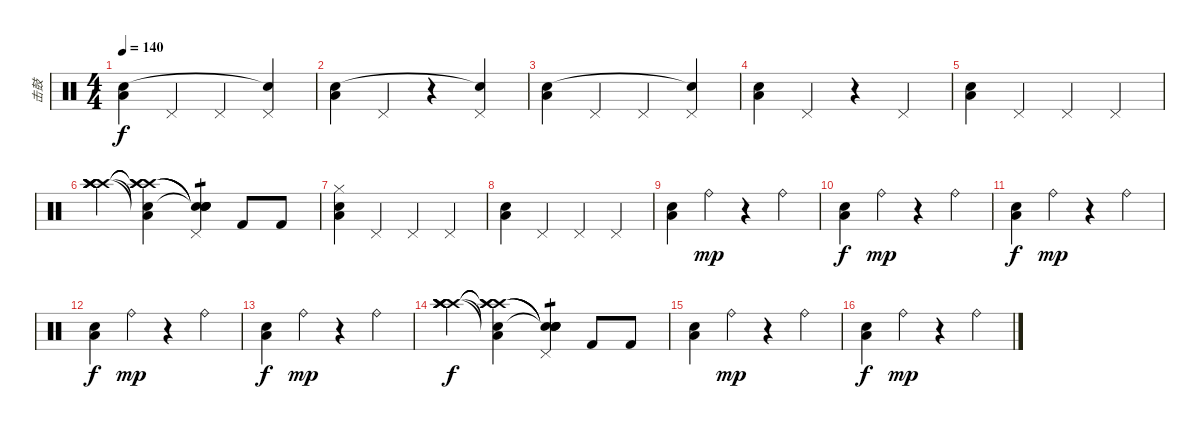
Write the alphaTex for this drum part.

\track ("击鼓" "击鼓") {instrument percussion}
\staff {score}
\articulation defaults
\ts (4 4)
\tempo 140
\clef neutral
\ks c
("Low Floor Tom (hit)" "Snare (hit) 2").4{dy f} "Pedal Hi-Hat (hit)".4 "Pedal Hi-Hat (hit)".4 ("Pedal Hi-Hat (hit)" "Snare (hit)"{t}).4 |
("Low Floor Tom (hit)" "Snare (hit) 2").4 "Pedal Hi-Hat (hit)".4 r.4 ("Pedal Hi-Hat (hit)" "Snare (hit)"{t}).4 |
("Low Floor Tom (hit)" "Snare (hit) 2").4 "Pedal Hi-Hat (hit)".4 "Pedal Hi-Hat (hit)".4 ("Pedal Hi-Hat (hit)" "Snare (hit)"{t}).4 |
("Low Floor Tom (hit)" "Snare (hit) 2").4 "Pedal Hi-Hat (hit)".4 r.4 "Pedal Hi-Hat (hit)".4 |
("Low Floor Tom (hit)" "Snare (hit) 2").4 "Pedal Hi-Hat (hit)".4 "Pedal Hi-Hat (hit)".4 "Pedal Hi-Hat (hit)".4 |
("Crash high (hit)" "Crash high (hit)" "Crash high (hit)" "Crash high (hit)" "Crash high (hit)").4 ("Crash high (hit)"{t} "Crash high (hit)"{t} "Crash high (hit)"{t} "Low Floor Tom (hit)"{t} "Snare (hit) 2"{t}).4 ("Snare (hit)"{t} "Snare (hit)"{t} "Snare (hit)"{t} "Pedal Hi-Hat (hit)" "Snare (hit)"{t}).4{tp 1} "Kick (hit) 2".8 "Kick (hit) 2".8 |
("Hi-Hat (closed)" "Low Floor Tom (hit)" "Snare (hit) 2").4 "Pedal Hi-Hat (hit)".4 "Pedal Hi-Hat (hit)".4 "Pedal Hi-Hat (hit)".4 |
("Low Floor Tom (hit)" "Snare (hit) 2").4 "Pedal Hi-Hat (hit)".4 "Pedal Hi-Hat (hit)".4 "Pedal Hi-Hat (hit)".4 |
("Low Floor Tom (hit)" "Snare (hit) 2").4 "Ride (bell)".4{dy mp} r.4 "Ride (bell)".4 |
("Low Floor Tom (hit)" "Snare (hit) 2").4{dy f} "Ride (bell)".4{dy mp} r.4 "Ride (bell)".4 |
("Low Floor Tom (hit)" "Snare (hit) 2").4{dy f} "Ride (bell)".4{dy mp} r.4 "Ride (bell)".4 |
("Low Floor Tom (hit)" "Snare (hit) 2").4{dy f} "Ride (bell)".4{dy mp} r.4 "Ride (bell)".4 |
("Low Floor Tom (hit)" "Snare (hit) 2").4{dy f} "Ride (bell)".4{dy mp} r.4 "Ride (bell)".4 |
("Crash high (hit)" "Crash high (hit)" "Crash high (hit)" "Crash high (hit)" "Crash high (hit)").4{dy f} ("Crash high (hit)"{t} "Crash high (hit)"{t} "Crash high (hit)"{t} "Low Floor Tom (hit)"{t} "Snare (hit) 2"{t}).4 ("Snare (hit)"{t} "Snare (hit)"{t} "Snare (hit)"{t} "Pedal Hi-Hat (hit)" "Snare (hit)"{t}).4{tp 1} "Kick (hit) 2".8 "Kick (hit) 2".8 |
("Low Floor Tom (hit)" "Snare (hit) 2").4 "Ride (bell)".4{dy mp} r.4 "Ride (bell)".4 |
("Low Floor Tom (hit)" "Snare (hit) 2").4{dy f} "Ride (bell)".4{dy mp} r.4 "Ride (bell)".4
